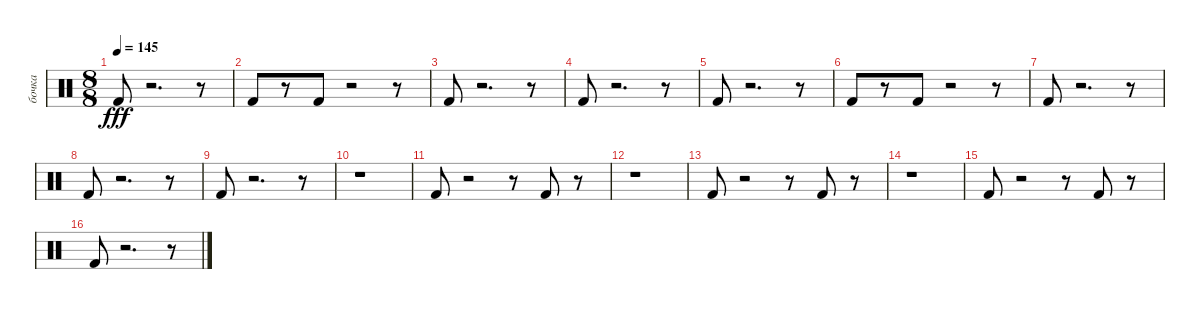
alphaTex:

\track ("бочка" "бочка") {instrument percussion}
\staff {score}
\articulation defaults
\ts (8 8)
\tempo 145
\clef neutral
\ks c "Kick (hit) 2".8{dy fff}
r.2{d} r.8 |
"Kick (hit) 2".8 r.8 "Kick (hit) 2".8 r.2 r.8 |
"Kick (hit) 2".8 r.2{d} r.8 |
"Kick (hit) 2".8 r.2{d} r.8 |
"Kick (hit) 2".8 r.2{d} r.8 |
"Kick (hit) 2".8 r.8 "Kick (hit) 2".8 r.2 r.8 |
"Kick (hit) 2".8 r.2{d} r.8 |
"Kick (hit) 2".8 r.2{d} r.8 |
"Kick (hit) 2".8 r.2{d} r.8 |
r.1 |
"Kick (hit) 2".8 r.2 r.8 "Kick (hit) 2".8 r.8 |
r.1 |
"Kick (hit) 2".8 r.2 r.8 "Kick (hit) 2".8 r.8 |
r.1 |
"Kick (hit) 2".8 r.2 r.8 "Kick (hit) 2".8 r.8 |
"Kick (hit) 2".8 r.2{d} r.8
